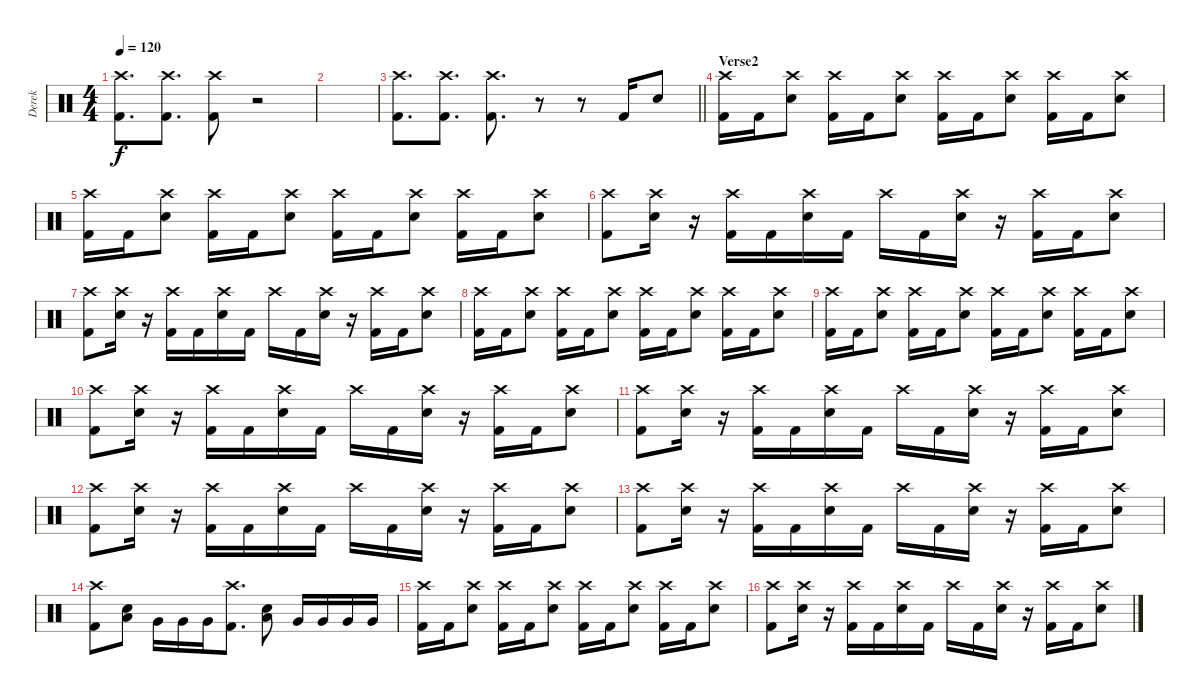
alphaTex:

\track ("Derek" "Derek") {instrument percussion}
\staff {score}
\articulation defaults
\ts (4 4)
\tempo 120
\clef neutral
\ks c
("Crash high (hit)" "Kick (hit) 2").8{d dy f} ("Crash high (hit)" "Kick (hit) 2").8{d} ("Crash high (hit)" "Kick (hit) 2").8 r.2 |
|
\barLineRight lightlight
("Crash high (hit)" "Kick (hit) 2").8{d} ("Crash high (hit)" "Kick (hit) 2").8{d} ("Crash high (hit)" "Kick (hit) 2").8{d} r.8 r.8 "Kick (hit) 2".16 "Electric Snare (hit)".8 |
\section ("" "Verse2")
("Crash high (hit)" "Kick (hit) 2").16 "Kick (hit) 2".16 ("Crash high (hit)" "Electric Snare (hit)").8 ("Crash high (hit)" "Kick (hit) 2").16 "Kick (hit) 2".16 ("Crash high (hit)" "Electric Snare (hit)").8 ("Crash high (hit)" "Kick (hit) 2").16 "Kick (hit) 2".16 ("Crash high (hit)" "Electric Snare (hit)").8 ("Crash high (hit)" "Kick (hit) 2").16 "Kick (hit) 2".16 ("Crash high (hit)" "Electric Snare (hit)").8 |
("Crash high (hit)" "Kick (hit) 2").16 "Kick (hit) 2".16 ("Crash high (hit)" "Electric Snare (hit)").8 ("Crash high (hit)" "Kick (hit) 2").16 "Kick (hit) 2".16 ("Crash high (hit)" "Electric Snare (hit)").8 ("Crash high (hit)" "Kick (hit) 2").16 "Kick (hit) 2".16 ("Crash high (hit)" "Electric Snare (hit)").8 ("Crash high (hit)" "Kick (hit) 2").16 "Kick (hit) 2".16 ("Crash high (hit)" "Electric Snare (hit)").8 |
("Crash high (hit)" "Kick (hit) 2").8 ("Crash high (hit)" "Electric Snare (hit)").16 r.16 ("Crash high (hit)" "Kick (hit) 2").16 "Kick (hit) 2".16 ("Crash high (hit)" "Electric Snare (hit)").16 "Kick (hit) 2".16 "Crash high (hit)".16 "Kick (hit) 2".16 ("Crash high (hit)" "Electric Snare (hit)").16 r.16 ("Crash high (hit)" "Kick (hit) 2").16 "Kick (hit) 2".16 ("Crash high (hit)" "Electric Snare (hit)").8 |
("Crash high (hit)" "Kick (hit) 2").8 ("Crash high (hit)" "Electric Snare (hit)").16 r.16 ("Crash high (hit)" "Kick (hit) 2").16 "Kick (hit) 2".16 ("Crash high (hit)" "Electric Snare (hit)").16 "Kick (hit) 2".16 "Crash high (hit)".16 "Kick (hit) 2".16 ("Crash high (hit)" "Electric Snare (hit)").16 r.16 ("Crash high (hit)" "Kick (hit) 2").16 "Kick (hit) 2".16 ("Crash high (hit)" "Electric Snare (hit)").8 |
("Crash high (hit)" "Kick (hit) 2").16 "Kick (hit) 2".16 ("Crash high (hit)" "Electric Snare (hit)").8 ("Crash high (hit)" "Kick (hit) 2").16 "Kick (hit) 2".16 ("Crash high (hit)" "Electric Snare (hit)").8 ("Crash high (hit)" "Kick (hit) 2").16 "Kick (hit) 2".16 ("Crash high (hit)" "Electric Snare (hit)").8 ("Crash high (hit)" "Kick (hit) 2").16 "Kick (hit) 2".16 ("Crash high (hit)" "Electric Snare (hit)").8 |
("Crash high (hit)" "Kick (hit) 2").16 "Kick (hit) 2".16 ("Crash high (hit)" "Electric Snare (hit)").8 ("Crash high (hit)" "Kick (hit) 2").16 "Kick (hit) 2".16 ("Crash high (hit)" "Electric Snare (hit)").8 ("Crash high (hit)" "Kick (hit) 2").16 "Kick (hit) 2".16 ("Crash high (hit)" "Electric Snare (hit)").8 ("Crash high (hit)" "Kick (hit) 2").16 "Kick (hit) 2".16 ("Crash high (hit)" "Electric Snare (hit)").8 |
("Crash high (hit)" "Kick (hit) 2").8 ("Crash high (hit)" "Electric Snare (hit)").16 r.16 ("Crash high (hit)" "Kick (hit) 2").16 "Kick (hit) 2".16 ("Crash high (hit)" "Electric Snare (hit)").16 "Kick (hit) 2".16 "Crash high (hit)".16 "Kick (hit) 2".16 ("Crash high (hit)" "Electric Snare (hit)").16 r.16 ("Crash high (hit)" "Kick (hit) 2").16 "Kick (hit) 2".16 ("Crash high (hit)" "Electric Snare (hit)").8 |
("Crash high (hit)" "Kick (hit) 2").8 ("Crash high (hit)" "Electric Snare (hit)").16 r.16 ("Crash high (hit)" "Kick (hit) 2").16 "Kick (hit) 2".16 ("Crash high (hit)" "Electric Snare (hit)").16 "Kick (hit) 2".16 "Crash high (hit)".16 "Kick (hit) 2".16 ("Crash high (hit)" "Electric Snare (hit)").16 r.16 ("Crash high (hit)" "Kick (hit) 2").16 "Kick (hit) 2".16 ("Crash high (hit)" "Electric Snare (hit)").8 |
("Crash high (hit)" "Kick (hit) 2").8 ("Crash high (hit)" "Electric Snare (hit)").16 r.16 ("Crash high (hit)" "Kick (hit) 2").16 "Kick (hit) 2".16 ("Crash high (hit)" "Electric Snare (hit)").16 "Kick (hit) 2".16 "Crash high (hit)".16 "Kick (hit) 2".16 ("Crash high (hit)" "Electric Snare (hit)").16 r.16 ("Crash high (hit)" "Kick (hit) 2").16 "Kick (hit) 2".16 ("Crash high (hit)" "Electric Snare (hit)").8 |
("Crash high (hit)" "Kick (hit) 2").8 ("Crash high (hit)" "Electric Snare (hit)").16 r.16 ("Crash high (hit)" "Kick (hit) 2").16 "Kick (hit) 2".16 ("Crash high (hit)" "Electric Snare (hit)").16 "Kick (hit) 2".16 "Crash high (hit)".16 "Kick (hit) 2".16 ("Crash high (hit)" "Electric Snare (hit)").16 r.16 ("Crash high (hit)" "Kick (hit) 2").16 "Kick (hit) 2".16 ("Crash high (hit)" "Electric Snare (hit)").8 |
("Crash high (hit)" "Kick (hit) 2").8 ("Electric Snare (hit)" "Low Floor Tom (hit)").8 "Very Low Tom (hit)".16 "Very Low Tom (hit)".16 "Very Low Tom (hit)".16 ("Crash high (hit)" "Kick (hit) 2").8{d} ("Electric Snare (hit)" "Low Floor Tom (hit)").8 "Very Low Tom (hit)".16 "Very Low Tom (hit)".16 "Very Low Tom (hit)".16 "Very Low Tom (hit)".16 |
("Crash high (hit)" "Kick (hit) 2").16 "Kick (hit) 2".16 ("Crash high (hit)" "Electric Snare (hit)").8 ("Crash high (hit)" "Kick (hit) 2").16 "Kick (hit) 2".16 ("Crash high (hit)" "Electric Snare (hit)").8 ("Crash high (hit)" "Kick (hit) 2").16 "Kick (hit) 2".16 ("Crash high (hit)" "Electric Snare (hit)").8 ("Crash high (hit)" "Kick (hit) 2").16 "Kick (hit) 2".16 ("Crash high (hit)" "Electric Snare (hit)").8 |
("Crash high (hit)" "Kick (hit) 2").8 ("Crash high (hit)" "Electric Snare (hit)").16 r.16 ("Crash high (hit)" "Kick (hit) 2").16 "Kick (hit) 2".16 ("Crash high (hit)" "Electric Snare (hit)").16 "Kick (hit) 2".16 "Crash high (hit)".16 "Kick (hit) 2".16 ("Crash high (hit)" "Electric Snare (hit)").16 r.16 ("Crash high (hit)" "Kick (hit) 2").16 "Kick (hit) 2".16 ("Crash high (hit)" "Electric Snare (hit)").8
